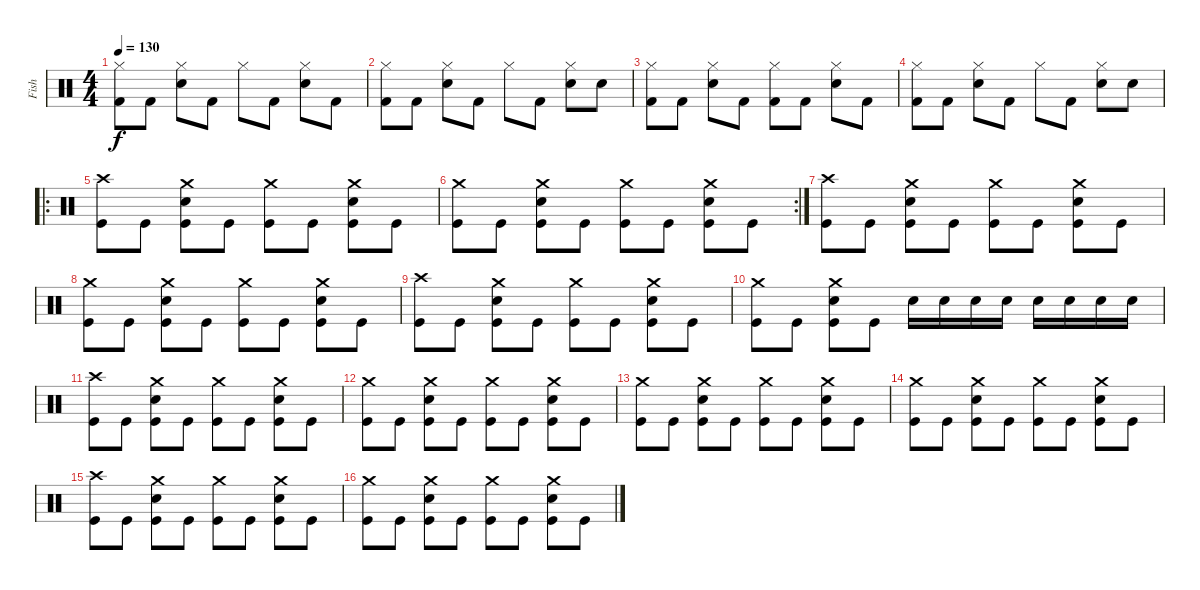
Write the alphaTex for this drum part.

\track ("Fish" "Fish") {instrument percussion}
\staff {score}
\articulation defaults
\ts (4 4)
\tempo 130
\clef neutral
\ks c
("Hi-Hat (closed)" "Kick (hit) 2").8{dy f} "Kick (hit) 2".8 ("Hi-Hat (closed)" "Electric Snare (hit)").8 "Kick (hit) 2".8 "Hi-Hat (closed)".8 "Kick (hit) 2".8 ("Hi-Hat (closed)" "Electric Snare (hit)").8 "Kick (hit) 2".8 |
("Hi-Hat (closed)" "Kick (hit) 2").8 "Kick (hit) 2".8 ("Hi-Hat (closed)" "Electric Snare (hit)").8 "Kick (hit) 2".8 "Hi-Hat (closed)".8 "Kick (hit) 2".8 ("Hi-Hat (closed)" "Electric Snare (hit)").8 "Electric Snare (hit)".8 |
("Hi-Hat (closed)" "Kick (hit) 2").8 "Kick (hit) 2".8 ("Hi-Hat (closed)" "Electric Snare (hit)").8 "Kick (hit) 2".8 ("Hi-Hat (closed)" "Kick (hit) 2").8 "Kick (hit) 2".8 ("Hi-Hat (closed)" "Electric Snare (hit)").8 "Kick (hit) 2".8 |
("Hi-Hat (closed)" "Kick (hit) 2").8 "Kick (hit) 2".8 ("Hi-Hat (closed)" "Electric Snare (hit)").8 "Kick (hit) 2".8 "Hi-Hat (closed)".8 "Kick (hit) 2".8 ("Hi-Hat (closed)" "Electric Snare (hit)").8 "Electric Snare (hit)".8 |
\ro
("Crash high (hit)" "Kick (hit)").8 "Kick (hit)".8 ("Crash medium (hit)" "Electric Snare (hit)" "Kick (hit)").8 "Kick (hit)".8 ("Crash medium (hit)" "Kick (hit)").8 "Kick (hit)".8 ("Crash medium (hit)" "Electric Snare (hit)" "Kick (hit)").8 "Kick (hit)".8 |
\rc 2
("Crash medium (hit)" "Kick (hit)").8 "Kick (hit)".8 ("Crash medium (hit)" "Electric Snare (hit)" "Kick (hit)").8 "Kick (hit)".8 ("Crash medium (hit)" "Kick (hit)").8 "Kick (hit)".8 ("Crash medium (hit)" "Electric Snare (hit)" "Kick (hit)").8 "Kick (hit)".8 |
("Crash high (hit)" "Kick (hit)").8 "Kick (hit)".8 ("Crash medium (hit)" "Electric Snare (hit)" "Kick (hit)").8 "Kick (hit)".8 ("Crash medium (hit)" "Kick (hit)").8 "Kick (hit)".8 ("Crash medium (hit)" "Electric Snare (hit)" "Kick (hit)").8 "Kick (hit)".8 |
("Crash medium (hit)" "Kick (hit)").8 "Kick (hit)".8 ("Crash medium (hit)" "Electric Snare (hit)" "Kick (hit)").8 "Kick (hit)".8 ("Crash medium (hit)" "Kick (hit)").8 "Kick (hit)".8 ("Crash medium (hit)" "Electric Snare (hit)" "Kick (hit)").8 "Kick (hit)".8 |
("Crash high (hit)" "Kick (hit)").8 "Kick (hit)".8 ("Crash medium (hit)" "Electric Snare (hit)" "Kick (hit)").8 "Kick (hit)".8 ("Crash medium (hit)" "Kick (hit)").8 "Kick (hit)".8 ("Crash medium (hit)" "Electric Snare (hit)" "Kick (hit)").8 "Kick (hit)".8 |
("Crash medium (hit)" "Kick (hit)").8 "Kick (hit)".8 ("Crash medium (hit)" "Electric Snare (hit)" "Kick (hit)").8 "Kick (hit)".8 "Snare (hit) 2".16 "Snare (hit) 2".16 "Snare (hit) 2".16 "Snare (hit) 2".16 "Snare (hit) 2".16 "Snare (hit) 2".16 "Snare (hit) 2".16 "Snare (hit) 2".16 |
("Crash high (hit)" "Kick (hit)").8 "Kick (hit)".8 ("Crash medium (hit)" "Electric Snare (hit)" "Kick (hit)").8 "Kick (hit)".8 ("Crash medium (hit)" "Kick (hit)").8 "Kick (hit)".8 ("Crash medium (hit)" "Electric Snare (hit)" "Kick (hit)").8 "Kick (hit)".8 |
("Crash medium (hit)" "Kick (hit)").8 "Kick (hit)".8 ("Crash medium (hit)" "Electric Snare (hit)" "Kick (hit)").8 "Kick (hit)".8 ("Crash medium (hit)" "Kick (hit)").8 "Kick (hit)".8 ("Crash medium (hit)" "Electric Snare (hit)" "Kick (hit)").8 "Kick (hit)".8 |
("Crash medium (hit)" "Kick (hit)").8 "Kick (hit)".8 ("Crash medium (hit)" "Electric Snare (hit)" "Kick (hit)").8 "Kick (hit)".8 ("Crash medium (hit)" "Kick (hit)").8 "Kick (hit)".8 ("Crash medium (hit)" "Electric Snare (hit)" "Kick (hit)").8 "Kick (hit)".8 |
("Crash medium (hit)" "Kick (hit)").8 "Kick (hit)".8 ("Crash medium (hit)" "Electric Snare (hit)" "Kick (hit)").8 "Kick (hit)".8 ("Crash medium (hit)" "Kick (hit)").8 "Kick (hit)".8 ("Crash medium (hit)" "Electric Snare (hit)" "Kick (hit)").8 "Kick (hit)".8 |
("Crash high (hit)" "Kick (hit)").8 "Kick (hit)".8 ("Crash medium (hit)" "Electric Snare (hit)" "Kick (hit)").8 "Kick (hit)".8 ("Crash medium (hit)" "Kick (hit)").8 "Kick (hit)".8 ("Crash medium (hit)" "Electric Snare (hit)" "Kick (hit)").8 "Kick (hit)".8 |
("Crash medium (hit)" "Kick (hit)").8 "Kick (hit)".8 ("Crash medium (hit)" "Electric Snare (hit)" "Kick (hit)").8 "Kick (hit)".8 ("Crash medium (hit)" "Kick (hit)").8 "Kick (hit)".8 ("Crash medium (hit)" "Electric Snare (hit)" "Kick (hit)").8 "Kick (hit)".8
